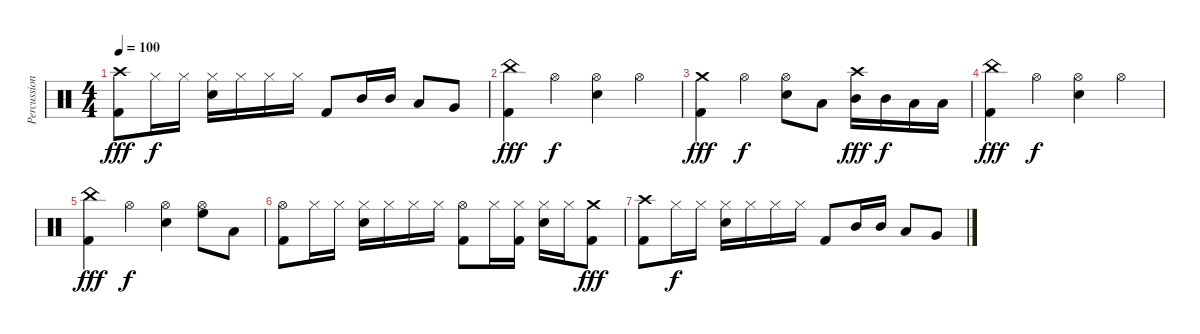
\track ("Percussion" "Percussion") {instrument percussion}
\staff {score}
\articulation defaults
\ts (4 4)
\tempo 100
\clef neutral
\ks c
("Crash high (hit)" "Kick (hit) 2").8{dy fff} "Hi-Hat (closed)".16{dy f} "Hi-Hat (closed)".16 ("Hi-Hat (closed)" "Electric Snare (hit)").16 "Hi-Hat (closed)".16 "Hi-Hat (closed)".16 "Hi-Hat (closed)".16 "Kick (hit) 2".8 "Mid Tom (hit)".16 "Mid Tom (hit)".16 "Low Tom (hit)".8 "Very Low Tom (hit)".8 |
("China (hit)" "Kick (hit) 2").4{dy fff volume 0} "Hi-Hat (open)".4{dy f} ("Hi-Hat (open)" "Electric Snare (hit)").4 "Hi-Hat (open)".4 |
("Crash medium (hit)" "Kick (hit) 2").4{dy fff} "Hi-Hat (open)".4{dy f} ("Hi-Hat (open)" "Electric Snare (hit)").8 "Low Tom (hit)".8 ("Crash high (hit)" "Mid Tom (hit)").16{dy fff} "Mid Tom (hit)".16{dy f} "Low Tom (hit)".16 "Low Tom (hit)".16 |
("China (hit)" "Kick (hit) 2").4{dy fff} "Hi-Hat (open)".4{dy f} ("Hi-Hat (open)" "Electric Snare (hit)").4 "Hi-Hat (open)".4 |
("China (hit)" "Kick (hit) 2").4{dy fff} "Hi-Hat (open)".4{dy f} ("Hi-Hat (open)" "Electric Snare (hit)").4 ("Hi-Hat (open)" "High Floor Tom (hit)").8 "Low Tom (hit)".8 |
("Hi-Hat (open)" "Kick (hit) 2").8 "Hi-Hat (closed)".16 "Hi-Hat (closed)".16 ("Hi-Hat (closed)" "Electric Snare (hit)").16 "Hi-Hat (closed)".16 "Hi-Hat (closed)".16 "Hi-Hat (closed)".16 ("Hi-Hat (open)" "Kick (hit) 2").8 "Hi-Hat (closed)".16 ("Hi-Hat (closed)" "Kick (hit) 2").16 ("Hi-Hat (closed)" "Electric Snare (hit)").16 "Hi-Hat (closed)".16 ("Crash medium (hit)" "Kick (hit) 2").8{dy fff} |
("Crash high (hit)" "Kick (hit) 2").8 "Hi-Hat (closed)".16{dy f} "Hi-Hat (closed)".16 ("Hi-Hat (closed)" "Electric Snare (hit)").16 "Hi-Hat (closed)".16 "Hi-Hat (closed)".16 "Hi-Hat (closed)".16 "Kick (hit) 2".8 "Mid Tom (hit)".16 "Mid Tom (hit)".16 "Low Tom (hit)".8 "Very Low Tom (hit)".8
